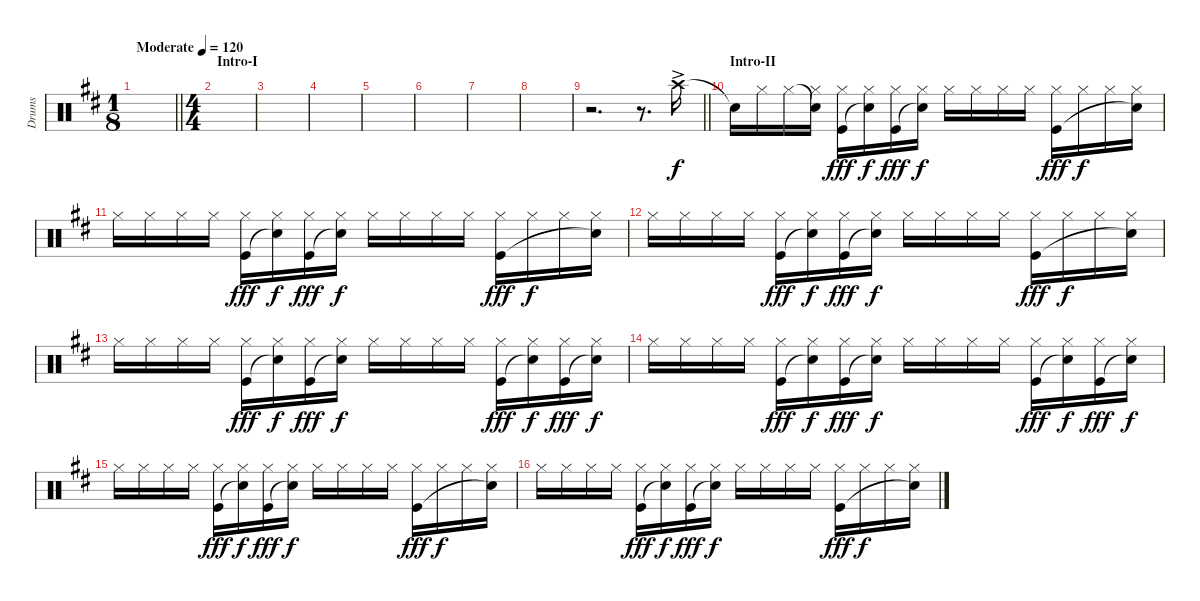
\track ("Drums" "Drums") {instrument percussion}
\staff {score}
\articulation defaults
\ts (1 8)
\tempo (120 "Moderate")
\clef neutral
\barLineRight lightlight
\ks d
|
\ts (4 4)
\section ("" "Intro-I")
|
|
|
|
|
|
|
\barLineRight lightlight
r.2{d} r.8{d} "Crash high (hit)"{ac}.16 |
\section ("" "Intro-II")
"Snare (hit)"{t}.16{dy f} "Hi-Hat (closed)".16 "Hi-Hat (closed)".16 ("Snare (hit)"{t} "Hi-Hat (closed)").16 ("Hi-Hat (closed)" "Kick (hit)").16{dy fff} ("Hi-Hat (closed)" "Snare (hit)"{t}).16{dy f} ("Hi-Hat (closed)" "Kick (hit)").16{dy fff} ("Hi-Hat (closed)" "Snare (hit)"{t}).16{dy f} "Hi-Hat (closed)".16 "Hi-Hat (closed)".16 "Hi-Hat (closed)".16 "Hi-Hat (closed)".16 ("Hi-Hat (closed)" "Kick (hit)").16{dy fff} "Hi-Hat (closed)".16{dy f} "Hi-Hat (closed)".16 ("Hi-Hat (closed)" "Snare (hit)"{t}).16 |
"Hi-Hat (closed)".16 "Hi-Hat (closed)".16 "Hi-Hat (closed)".16 "Hi-Hat (closed)".16 ("Hi-Hat (closed)" "Kick (hit)").16{dy fff} ("Hi-Hat (closed)" "Snare (hit)"{t}).16{dy f} ("Hi-Hat (closed)" "Kick (hit)").16{dy fff} ("Hi-Hat (closed)" "Snare (hit)"{t}).16{dy f} "Hi-Hat (closed)".16 "Hi-Hat (closed)".16 "Hi-Hat (closed)".16 "Hi-Hat (closed)".16 ("Hi-Hat (closed)" "Kick (hit)").16{dy fff} "Hi-Hat (closed)".16{dy f} "Hi-Hat (closed)".16 ("Hi-Hat (closed)" "Snare (hit)"{t}).16 |
"Hi-Hat (closed)".16 "Hi-Hat (closed)".16 "Hi-Hat (closed)".16 "Hi-Hat (closed)".16 ("Hi-Hat (closed)" "Kick (hit)").16{dy fff} ("Hi-Hat (closed)" "Snare (hit)"{t}).16{dy f} ("Hi-Hat (closed)" "Kick (hit)").16{dy fff} ("Hi-Hat (closed)" "Snare (hit)"{t}).16{dy f} "Hi-Hat (closed)".16 "Hi-Hat (closed)".16 "Hi-Hat (closed)".16 "Hi-Hat (closed)".16 ("Hi-Hat (closed)" "Kick (hit)").16{dy fff} "Hi-Hat (closed)".16{dy f} "Hi-Hat (closed)".16 ("Hi-Hat (closed)" "Snare (hit)"{t}).16 |
"Hi-Hat (closed)".16 "Hi-Hat (closed)".16 "Hi-Hat (closed)".16 "Hi-Hat (closed)".16 ("Hi-Hat (closed)" "Kick (hit)").16{dy fff} ("Hi-Hat (closed)" "Snare (hit)"{t}).16{dy f} ("Hi-Hat (closed)" "Kick (hit)").16{dy fff} ("Hi-Hat (closed)" "Snare (hit)"{t}).16{dy f} "Hi-Hat (closed)".16 "Hi-Hat (closed)".16 "Hi-Hat (closed)".16 "Hi-Hat (closed)".16 ("Hi-Hat (closed)" "Kick (hit)").16{dy fff} ("Hi-Hat (closed)" "Snare (hit)"{t}).16{dy f} ("Hi-Hat (closed)" "Kick (hit)").16{dy fff} ("Hi-Hat (closed)" "Snare (hit)"{t}).16{dy f} |
"Hi-Hat (closed)".16 "Hi-Hat (closed)".16 "Hi-Hat (closed)".16 "Hi-Hat (closed)".16 ("Hi-Hat (closed)" "Kick (hit)").16{dy fff} ("Hi-Hat (closed)" "Snare (hit)"{t}).16{dy f} ("Hi-Hat (closed)" "Kick (hit)").16{dy fff} ("Hi-Hat (closed)" "Snare (hit)"{t}).16{dy f} "Hi-Hat (closed)".16 "Hi-Hat (closed)".16 "Hi-Hat (closed)".16 "Hi-Hat (closed)".16 ("Hi-Hat (closed)" "Kick (hit)").16{dy fff} ("Hi-Hat (closed)" "Snare (hit)"{t}).16{dy f} ("Hi-Hat (closed)" "Kick (hit)").16{dy fff} ("Hi-Hat (closed)" "Snare (hit)"{t}).16{dy f} |
"Hi-Hat (closed)".16 "Hi-Hat (closed)".16 "Hi-Hat (closed)".16 "Hi-Hat (closed)".16 ("Hi-Hat (closed)" "Kick (hit)").16{dy fff} ("Hi-Hat (closed)" "Snare (hit)"{t}).16{dy f} ("Hi-Hat (closed)" "Kick (hit)").16{dy fff} ("Hi-Hat (closed)" "Snare (hit)"{t}).16{dy f} "Hi-Hat (closed)".16 "Hi-Hat (closed)".16 "Hi-Hat (closed)".16 "Hi-Hat (closed)".16 ("Hi-Hat (closed)" "Kick (hit)").16{dy fff} "Hi-Hat (closed)".16{dy f} "Hi-Hat (closed)".16 ("Hi-Hat (closed)" "Snare (hit)"{t}).16 |
"Hi-Hat (closed)".16 "Hi-Hat (closed)".16 "Hi-Hat (closed)".16 "Hi-Hat (closed)".16 ("Hi-Hat (closed)" "Kick (hit)").16{dy fff} ("Hi-Hat (closed)" "Snare (hit)"{t}).16{dy f} ("Hi-Hat (closed)" "Kick (hit)").16{dy fff} ("Hi-Hat (closed)" "Snare (hit)"{t}).16{dy f} "Hi-Hat (closed)".16 "Hi-Hat (closed)".16 "Hi-Hat (closed)".16 "Hi-Hat (closed)".16 ("Hi-Hat (closed)" "Kick (hit)").16{dy fff} "Hi-Hat (closed)".16{dy f} "Hi-Hat (closed)".16 ("Hi-Hat (closed)" "Snare (hit)"{t}).16
